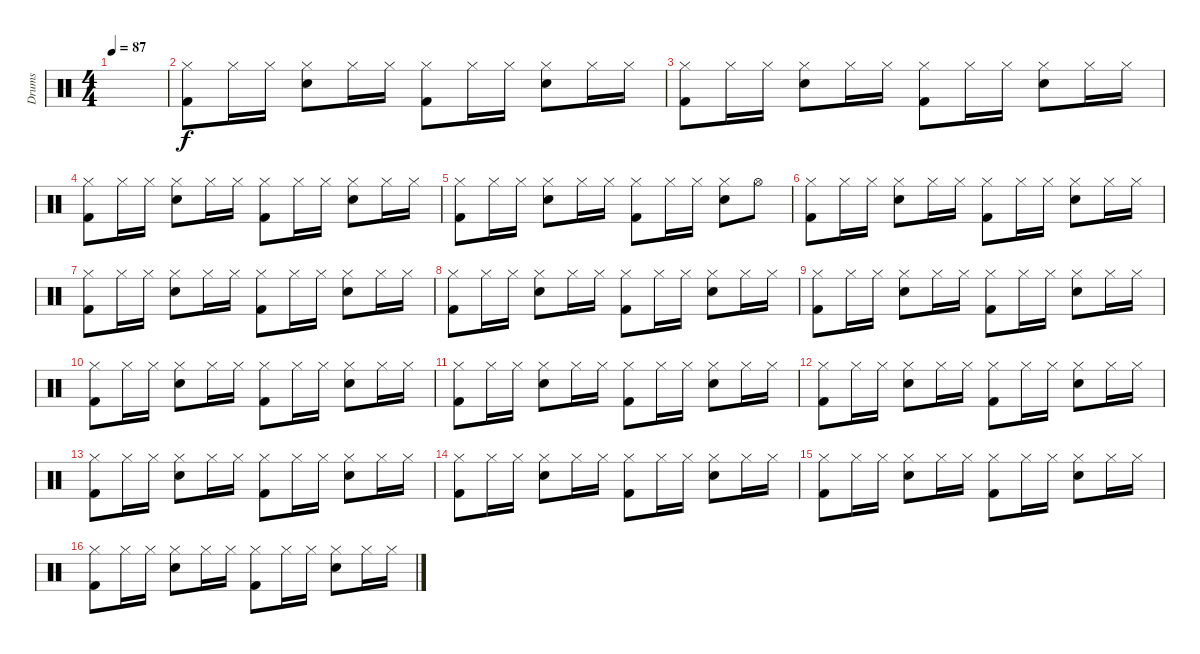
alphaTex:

\track ("Drums" "Drums") {instrument percussion}
\staff {score}
\articulation defaults
\ts (4 4)
\tempo 87
\clef neutral
\ks c
|
("Hi-Hat (closed)" "Kick (hit) 2").8 "Hi-Hat (closed)".16 "Hi-Hat (closed)".16 ("Hi-Hat (closed)" "Snare (hit) 2").8 "Hi-Hat (closed)".16 "Hi-Hat (closed)".16 ("Hi-Hat (closed)" "Kick (hit) 2").8 "Hi-Hat (closed)".16 "Hi-Hat (closed)".16 ("Hi-Hat (closed)" "Snare (hit) 2").8 "Hi-Hat (closed)".16 "Hi-Hat (closed)".16 |
("Hi-Hat (closed)" "Kick (hit) 2").8 "Hi-Hat (closed)".16 "Hi-Hat (closed)".16 ("Hi-Hat (closed)" "Snare (hit) 2").8 "Hi-Hat (closed)".16 "Hi-Hat (closed)".16 ("Hi-Hat (closed)" "Kick (hit) 2").8 "Hi-Hat (closed)".16 "Hi-Hat (closed)".16 ("Hi-Hat (closed)" "Snare (hit) 2").8 "Hi-Hat (closed)".16 "Hi-Hat (closed)".16 |
("Hi-Hat (closed)" "Kick (hit) 2").8 "Hi-Hat (closed)".16 "Hi-Hat (closed)".16 ("Hi-Hat (closed)" "Snare (hit) 2").8 "Hi-Hat (closed)".16 "Hi-Hat (closed)".16 ("Hi-Hat (closed)" "Kick (hit) 2").8 "Hi-Hat (closed)".16 "Hi-Hat (closed)".16 ("Hi-Hat (closed)" "Snare (hit) 2").8 "Hi-Hat (closed)".16 "Hi-Hat (closed)".16 |
("Hi-Hat (closed)" "Kick (hit) 2").8 "Hi-Hat (closed)".16 "Hi-Hat (closed)".16 ("Hi-Hat (closed)" "Snare (hit) 2").8 "Hi-Hat (closed)".16 "Hi-Hat (closed)".16 ("Hi-Hat (closed)" "Kick (hit) 2").8 "Hi-Hat (closed)".16 "Hi-Hat (closed)".16 ("Hi-Hat (closed)" "Snare (hit) 2").8 "Hi-Hat (open)".8 |
("Hi-Hat (closed)" "Kick (hit) 2").8 "Hi-Hat (closed)".16 "Hi-Hat (closed)".16 ("Hi-Hat (closed)" "Snare (hit) 2").8 "Hi-Hat (closed)".16 "Hi-Hat (closed)".16 ("Hi-Hat (closed)" "Kick (hit) 2").8 "Hi-Hat (closed)".16 "Hi-Hat (closed)".16 ("Hi-Hat (closed)" "Snare (hit) 2").8 "Hi-Hat (closed)".16 "Hi-Hat (closed)".16 |
("Hi-Hat (closed)" "Kick (hit) 2").8 "Hi-Hat (closed)".16 "Hi-Hat (closed)".16 ("Hi-Hat (closed)" "Snare (hit) 2").8 "Hi-Hat (closed)".16 "Hi-Hat (closed)".16 ("Hi-Hat (closed)" "Kick (hit) 2").8 "Hi-Hat (closed)".16 "Hi-Hat (closed)".16 ("Hi-Hat (closed)" "Snare (hit) 2").8 "Hi-Hat (closed)".16 "Hi-Hat (closed)".16 |
("Hi-Hat (closed)" "Kick (hit) 2").8 "Hi-Hat (closed)".16 "Hi-Hat (closed)".16 ("Hi-Hat (closed)" "Snare (hit) 2").8 "Hi-Hat (closed)".16 "Hi-Hat (closed)".16 ("Hi-Hat (closed)" "Kick (hit) 2").8 "Hi-Hat (closed)".16 "Hi-Hat (closed)".16 ("Hi-Hat (closed)" "Snare (hit) 2").8 "Hi-Hat (closed)".16 "Hi-Hat (closed)".16 |
("Hi-Hat (closed)" "Kick (hit) 2").8 "Hi-Hat (closed)".16 "Hi-Hat (closed)".16 ("Hi-Hat (closed)" "Snare (hit) 2").8 "Hi-Hat (closed)".16 "Hi-Hat (closed)".16 ("Hi-Hat (closed)" "Kick (hit) 2").8 "Hi-Hat (closed)".16 "Hi-Hat (closed)".16 ("Hi-Hat (closed)" "Snare (hit) 2").8 "Hi-Hat (closed)".16 "Hi-Hat (closed)".16 |
("Hi-Hat (closed)" "Kick (hit) 2").8 "Hi-Hat (closed)".16 "Hi-Hat (closed)".16 ("Hi-Hat (closed)" "Snare (hit) 2").8 "Hi-Hat (closed)".16 "Hi-Hat (closed)".16 ("Hi-Hat (closed)" "Kick (hit) 2").8 "Hi-Hat (closed)".16 "Hi-Hat (closed)".16 ("Hi-Hat (closed)" "Snare (hit) 2").8 "Hi-Hat (closed)".16 "Hi-Hat (closed)".16 |
("Hi-Hat (closed)" "Kick (hit) 2").8 "Hi-Hat (closed)".16 "Hi-Hat (closed)".16 ("Hi-Hat (closed)" "Snare (hit) 2").8 "Hi-Hat (closed)".16 "Hi-Hat (closed)".16 ("Hi-Hat (closed)" "Kick (hit) 2").8 "Hi-Hat (closed)".16 "Hi-Hat (closed)".16 ("Hi-Hat (closed)" "Snare (hit) 2").8 "Hi-Hat (closed)".16 "Hi-Hat (closed)".16 |
("Hi-Hat (closed)" "Kick (hit) 2").8 "Hi-Hat (closed)".16 "Hi-Hat (closed)".16 ("Hi-Hat (closed)" "Snare (hit) 2").8 "Hi-Hat (closed)".16 "Hi-Hat (closed)".16 ("Hi-Hat (closed)" "Kick (hit) 2").8 "Hi-Hat (closed)".16 "Hi-Hat (closed)".16 ("Hi-Hat (closed)" "Snare (hit) 2").8 "Hi-Hat (closed)".16 "Hi-Hat (closed)".16 |
("Hi-Hat (closed)" "Kick (hit) 2").8 "Hi-Hat (closed)".16 "Hi-Hat (closed)".16 ("Hi-Hat (closed)" "Snare (hit) 2").8 "Hi-Hat (closed)".16 "Hi-Hat (closed)".16 ("Hi-Hat (closed)" "Kick (hit) 2").8 "Hi-Hat (closed)".16 "Hi-Hat (closed)".16 ("Hi-Hat (closed)" "Snare (hit) 2").8 "Hi-Hat (closed)".16 "Hi-Hat (closed)".16 |
("Hi-Hat (closed)" "Kick (hit) 2").8 "Hi-Hat (closed)".16 "Hi-Hat (closed)".16 ("Hi-Hat (closed)" "Snare (hit) 2").8 "Hi-Hat (closed)".16 "Hi-Hat (closed)".16 ("Hi-Hat (closed)" "Kick (hit) 2").8 "Hi-Hat (closed)".16 "Hi-Hat (closed)".16 ("Hi-Hat (closed)" "Snare (hit) 2").8 "Hi-Hat (closed)".16 "Hi-Hat (closed)".16 |
("Hi-Hat (closed)" "Kick (hit) 2").8 "Hi-Hat (closed)".16 "Hi-Hat (closed)".16 ("Hi-Hat (closed)" "Snare (hit) 2").8 "Hi-Hat (closed)".16 "Hi-Hat (closed)".16 ("Hi-Hat (closed)" "Kick (hit) 2").8 "Hi-Hat (closed)".16 "Hi-Hat (closed)".16 ("Hi-Hat (closed)" "Snare (hit) 2").8 "Hi-Hat (closed)".16 "Hi-Hat (closed)".16 |
("Hi-Hat (closed)" "Kick (hit) 2").8 "Hi-Hat (closed)".16 "Hi-Hat (closed)".16 ("Hi-Hat (closed)" "Snare (hit) 2").8 "Hi-Hat (closed)".16 "Hi-Hat (closed)".16 ("Hi-Hat (closed)" "Kick (hit) 2").8 "Hi-Hat (closed)".16 "Hi-Hat (closed)".16 ("Hi-Hat (closed)" "Snare (hit) 2").8 "Hi-Hat (closed)".16 "Hi-Hat (closed)".16
